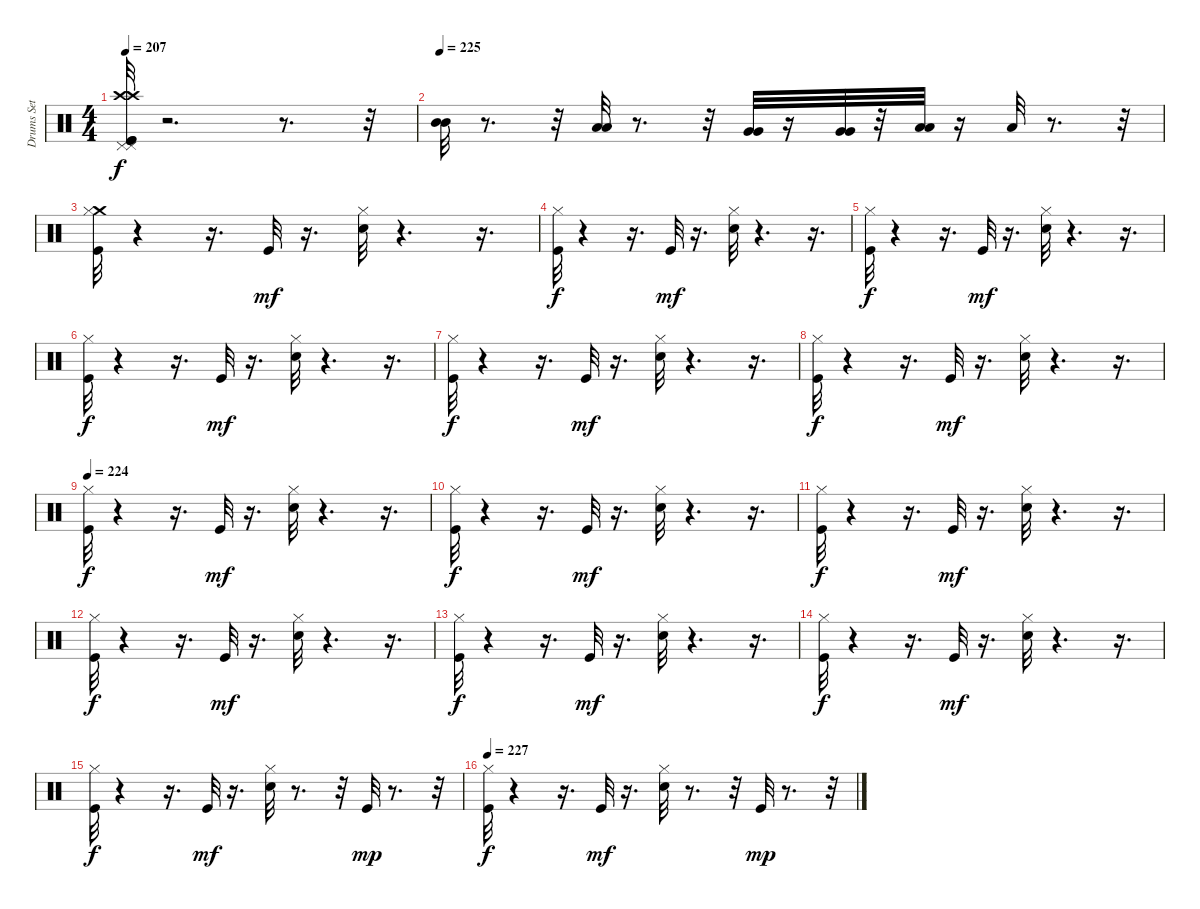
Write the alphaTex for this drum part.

\track ("Drums Set" "Drums Set") {instrument percussion}
\staff {score}
\articulation defaults
\ts (4 4)
\tempo 207
\clef neutral
\ks c
("Kick (hit)" "Crash high (hit)" "Pedal Hi-Hat (hit)" "Kick (hit)" "Crash high (hit)" "Pedal Hi-Hat (hit)").32{dy f} r.2{d} r.8{d} r.32 |
\tempo 225
("Mid Tom (hit)" "Mid Tom (hit)").32 r.8{d} r.32 ("Low Tom (hit)" "Low Tom (hit)").32 r.8{d} r.32 ("Very Low Tom (hit)" "Very Low Tom (hit)").32 r.16 ("Very Low Tom (hit)" "Very Low Tom (hit)").32 r.32 ("Low Floor Tom (hit)" "Low Floor Tom (hit)").32 r.16 "Low Floor Tom (hit)".32 r.8{d} r.32 |
("Kick (hit)" "Crash medium (hit)" "Hi-Hat (closed)").32 r.4 r.16{d} "Kick (hit)".32{dy mf} r.16{d} ("Hi-Hat (closed)" "Snare (hit) 2").32 r.4{d} r.16{d} |
("Kick (hit)" "Hi-Hat (closed)").32{dy f} r.4 r.16{d} "Kick (hit)".32{dy mf} r.16{d} ("Hi-Hat (closed)" "Snare (hit) 2").32 r.4{d} r.16{d} |
("Kick (hit)" "Hi-Hat (closed)").32{dy f} r.4 r.16{d} "Kick (hit)".32{dy mf} r.16{d} ("Hi-Hat (closed)" "Snare (hit) 2").32 r.4{d} r.16{d} |
("Kick (hit)" "Hi-Hat (closed)").32{dy f} r.4 r.16{d} "Kick (hit)".32{dy mf} r.16{d} ("Hi-Hat (closed)" "Snare (hit) 2").32 r.4{d} r.16{d} |
("Kick (hit)" "Hi-Hat (closed)").32{dy f} r.4 r.16{d} "Kick (hit)".32{dy mf} r.16{d} ("Hi-Hat (closed)" "Snare (hit) 2").32 r.4{d} r.16{d} |
("Kick (hit)" "Hi-Hat (closed)").32{dy f} r.4 r.16{d} "Kick (hit)".32{dy mf} r.16{d} ("Hi-Hat (closed)" "Snare (hit) 2").32 r.4{d} r.16{d} |
\tempo 224
("Kick (hit)" "Hi-Hat (closed)").32{dy f} r.4 r.16{d} "Kick (hit)".32{dy mf} r.16{d} ("Hi-Hat (closed)" "Snare (hit) 2").32 r.4{d} r.16{d} |
("Kick (hit)" "Hi-Hat (closed)").32{dy f} r.4 r.16{d} "Kick (hit)".32{dy mf} r.16{d} ("Hi-Hat (closed)" "Snare (hit) 2").32 r.4{d} r.16{d} |
("Kick (hit)" "Hi-Hat (closed)").32{dy f} r.4 r.16{d} "Kick (hit)".32{dy mf} r.16{d} ("Hi-Hat (closed)" "Snare (hit) 2").32 r.4{d} r.16{d} |
("Kick (hit)" "Hi-Hat (closed)").32{dy f} r.4 r.16{d} "Kick (hit)".32{dy mf} r.16{d} ("Hi-Hat (closed)" "Snare (hit) 2").32 r.4{d} r.16{d} |
("Kick (hit)" "Hi-Hat (closed)").32{dy f} r.4 r.16{d} "Kick (hit)".32{dy mf} r.16{d} ("Hi-Hat (closed)" "Snare (hit) 2").32 r.4{d} r.16{d} |
("Kick (hit)" "Hi-Hat (closed)").32{dy f} r.4 r.16{d} "Kick (hit)".32{dy mf} r.16{d} ("Hi-Hat (closed)" "Snare (hit) 2").32 r.4{d} r.16{d} |
("Kick (hit)" "Hi-Hat (closed)").32{dy f} r.4 r.16{d} "Kick (hit)".32{dy mf} r.16{d} ("Hi-Hat (closed)" "Snare (hit) 2").32 r.8{d} r.32 "Kick (hit)".32{dy mp} r.8{d} r.32 |
\tempo 227
("Kick (hit)" "Hi-Hat (closed)").32{dy f} r.4 r.16{d} "Kick (hit)".32{dy mf} r.16{d} ("Hi-Hat (closed)" "Snare (hit) 2").32 r.8{d} r.32 "Kick (hit)".32{dy mp} r.8{d} r.32
